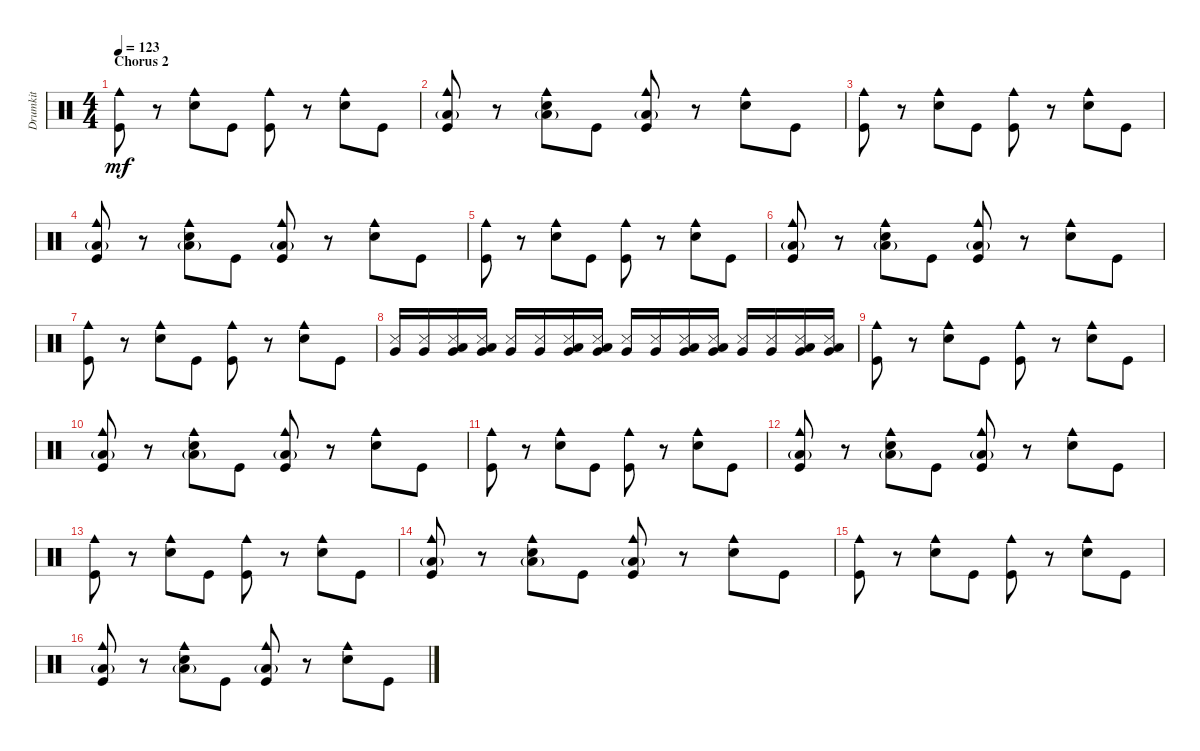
\track ("Drumkit" "Drumkit") {instrument percussion}
\staff {score}
\articulation defaults
\ts (4 4)
\section ("" "Chorus 2")
\tempo 123
\clef neutral
\ks c
("Kick (hit)" "Cowbell medium (hit)").8{dy mf} r.8 ("Snare (hit) 2" "Cowbell medium (hit)").8 "Kick (hit)".8 ("Kick (hit)" "Cowbell medium (hit)").8 r.8 ("Snare (hit) 2" "Cowbell medium (hit)").8 "Kick (hit)".8 |
("Kick (hit)" "Low Floor Tom (hit)"{g} "Cowbell medium (hit)").8 r.8 ("Snare (hit) 2" "Low Floor Tom (hit)"{g} "Cowbell medium (hit)").8 "Kick (hit)".8 ("Kick (hit)" "Low Floor Tom (hit)"{g} "Cowbell medium (hit)").8 r.8 ("Snare (hit) 2" "Cowbell medium (hit)").8 "Kick (hit)".8 |
("Kick (hit)" "Cowbell medium (hit)").8 r.8 ("Snare (hit) 2" "Cowbell medium (hit)").8 "Kick (hit)".8 ("Kick (hit)" "Cowbell medium (hit)").8 r.8 ("Snare (hit) 2" "Cowbell medium (hit)").8 "Kick (hit)".8 |
("Kick (hit)" "Low Floor Tom (hit)"{g} "Cowbell medium (hit)").8 r.8 ("Snare (hit) 2" "Low Floor Tom (hit)"{g} "Cowbell medium (hit)").8 "Kick (hit)".8 ("Kick (hit)" "Low Floor Tom (hit)"{g} "Cowbell medium (hit)").8 r.8 ("Snare (hit) 2" "Cowbell medium (hit)").8 "Kick (hit)".8 |
("Kick (hit)" "Cowbell medium (hit)").8 r.8 ("Snare (hit) 2" "Cowbell medium (hit)").8 "Kick (hit)".8 ("Kick (hit)" "Cowbell medium (hit)").8 r.8 ("Snare (hit) 2" "Cowbell medium (hit)").8 "Kick (hit)".8 |
("Kick (hit)" "Low Floor Tom (hit)"{g} "Cowbell medium (hit)").8 r.8 ("Snare (hit) 2" "Low Floor Tom (hit)"{g} "Cowbell medium (hit)").8 "Kick (hit)".8 ("Kick (hit)" "Low Floor Tom (hit)"{g} "Cowbell medium (hit)").8 r.8 ("Snare (hit) 2" "Cowbell medium (hit)").8 "Kick (hit)".8 |
("Kick (hit)" "Cowbell medium (hit)").8 r.8 ("Snare (hit) 2" "Cowbell medium (hit)").8 "Kick (hit)".8 ("Kick (hit)" "Cowbell medium (hit)").8 r.8 ("Snare (hit) 2" "Cowbell medium (hit)").8 "Kick (hit)".8 |
("Snare (side stick) 3" "Very Low Tom (hit)").16 ("Snare (side stick) 3" "Very Low Tom (hit)").16 ("Snare (side stick) 3" "Very Low Tom (hit)" "Low Floor Tom (hit)").16 ("Snare (side stick) 3" "Very Low Tom (hit)" "Low Floor Tom (hit)").16 ("Snare (side stick) 3" "Very Low Tom (hit)").16 ("Snare (side stick) 3" "Very Low Tom (hit)").16 ("Snare (side stick) 3" "Very Low Tom (hit)" "Low Floor Tom (hit)").16 ("Snare (side stick) 3" "Very Low Tom (hit)" "Low Floor Tom (hit)").16 ("Snare (side stick) 3" "Very Low Tom (hit)").16 ("Snare (side stick) 3" "Very Low Tom (hit)").16 ("Snare (side stick) 3" "Very Low Tom (hit)" "Low Floor Tom (hit)").16 ("Snare (side stick) 3" "Very Low Tom (hit)" "Low Floor Tom (hit)").16 ("Snare (side stick) 3" "Very Low Tom (hit)").16 ("Snare (side stick) 3" "Very Low Tom (hit)").16 ("Snare (side stick) 3" "Very Low Tom (hit)" "Low Floor Tom (hit)").16 ("Snare (side stick) 3" "Very Low Tom (hit)" "Low Floor Tom (hit)").16 |
("Kick (hit)" "Cowbell medium (hit)").8 r.8 ("Snare (hit) 2" "Cowbell medium (hit)").8 "Kick (hit)".8 ("Kick (hit)" "Cowbell medium (hit)").8 r.8 ("Snare (hit) 2" "Cowbell medium (hit)").8 "Kick (hit)".8 |
("Kick (hit)" "Low Floor Tom (hit)"{g} "Cowbell medium (hit)").8 r.8 ("Snare (hit) 2" "Low Floor Tom (hit)"{g} "Cowbell medium (hit)").8 "Kick (hit)".8 ("Kick (hit)" "Low Floor Tom (hit)"{g} "Cowbell medium (hit)").8 r.8 ("Snare (hit) 2" "Cowbell medium (hit)").8 "Kick (hit)".8 |
("Kick (hit)" "Cowbell medium (hit)").8 r.8 ("Snare (hit) 2" "Cowbell medium (hit)").8 "Kick (hit)".8 ("Kick (hit)" "Cowbell medium (hit)").8 r.8 ("Snare (hit) 2" "Cowbell medium (hit)").8 "Kick (hit)".8 |
("Kick (hit)" "Low Floor Tom (hit)"{g} "Cowbell medium (hit)").8 r.8 ("Snare (hit) 2" "Low Floor Tom (hit)"{g} "Cowbell medium (hit)").8 "Kick (hit)".8 ("Kick (hit)" "Low Floor Tom (hit)"{g} "Cowbell medium (hit)").8 r.8 ("Snare (hit) 2" "Cowbell medium (hit)").8 "Kick (hit)".8 |
("Kick (hit)" "Cowbell medium (hit)").8 r.8 ("Snare (hit) 2" "Cowbell medium (hit)").8 "Kick (hit)".8 ("Kick (hit)" "Cowbell medium (hit)").8 r.8 ("Snare (hit) 2" "Cowbell medium (hit)").8 "Kick (hit)".8 |
("Kick (hit)" "Low Floor Tom (hit)"{g} "Cowbell medium (hit)").8 r.8 ("Snare (hit) 2" "Low Floor Tom (hit)"{g} "Cowbell medium (hit)").8 "Kick (hit)".8 ("Kick (hit)" "Low Floor Tom (hit)"{g} "Cowbell medium (hit)").8 r.8 ("Snare (hit) 2" "Cowbell medium (hit)").8 "Kick (hit)".8 |
("Kick (hit)" "Cowbell medium (hit)").8 r.8 ("Snare (hit) 2" "Cowbell medium (hit)").8 "Kick (hit)".8 ("Kick (hit)" "Cowbell medium (hit)").8 r.8 ("Snare (hit) 2" "Cowbell medium (hit)").8 "Kick (hit)".8 |
("Kick (hit)" "Low Floor Tom (hit)"{g} "Cowbell medium (hit)").8 r.8 ("Snare (hit) 2" "Low Floor Tom (hit)"{g} "Cowbell medium (hit)").8 "Kick (hit)".8 ("Kick (hit)" "Low Floor Tom (hit)"{g} "Cowbell medium (hit)").8 r.8 ("Snare (hit) 2" "Cowbell medium (hit)").8 "Kick (hit)".8
